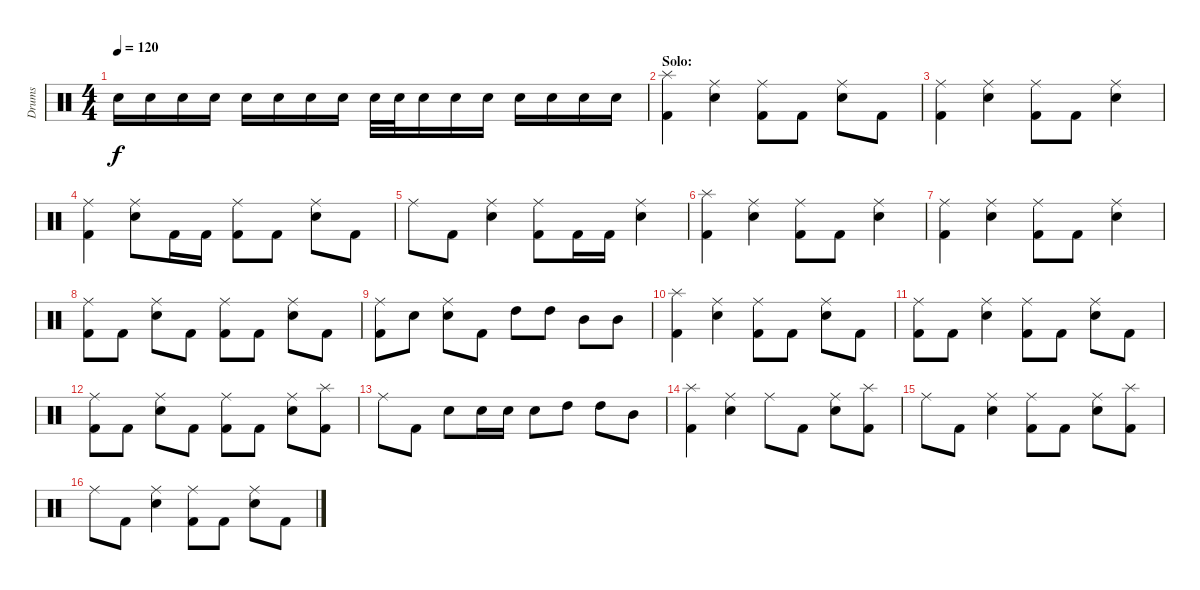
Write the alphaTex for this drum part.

\track ("Drums" "Drums") {instrument percussion}
\staff {score}
\articulation defaults
\ts (4 4)
\tempo 120
\clef neutral
\ks c "Electric Snare (hit)".16{dy f} "Electric Snare (hit)".16 "Electric Snare (hit)".16 "Electric Snare (hit)".16 "Electric Snare (hit)".16 "Electric Snare (hit)".16 "Electric Snare (hit)".16 "Electric Snare (hit)".16 "Electric Snare (hit)".32 "Electric Snare (hit)".32 "Electric Snare (hit)".16 "Electric Snare (hit)".16 "Electric Snare (hit)".16 "Electric Snare (hit)".16 "Electric Snare (hit)".16 "Electric Snare (hit)".16 "Electric Snare (hit)".16
|
\section ("" "Solo:")
("Splash (hit)" "Kick (hit) 2").4 ("Ride (middle)" "Electric Snare (hit)").4 ("Ride (middle)" "Kick (hit) 2").8 "Kick (hit) 2".8 ("Ride (middle)" "Electric Snare (hit)").8 "Kick (hit) 2".8 |
("Ride (middle)" "Kick (hit) 2").4 ("Ride (middle)" "Electric Snare (hit)").4 ("Ride (middle)" "Kick (hit) 2").8 "Kick (hit) 2".8 ("Ride (middle)" "Electric Snare (hit)").4 |
("Ride (middle)" "Kick (hit) 2").4 ("Ride (middle)" "Electric Snare (hit)").8 "Kick (hit) 2".16 "Kick (hit) 2".16 ("Ride (middle)" "Kick (hit) 2").8 "Kick (hit) 2".8 ("Ride (middle)" "Electric Snare (hit)").8 "Kick (hit) 2".8 |
"Ride (middle)".8 "Kick (hit) 2".8 ("Ride (middle)" "Electric Snare (hit)").4 ("Ride (middle)" "Kick (hit) 2").8 "Kick (hit) 2".16 "Kick (hit) 2".16 ("Ride (middle)" "Electric Snare (hit)").4 |
("Splash (hit)" "Kick (hit) 2").4 ("Ride (middle)" "Electric Snare (hit)").4 ("Ride (middle)" "Kick (hit) 2").8 "Kick (hit) 2".8 ("Ride (middle)" "Electric Snare (hit)").4 |
("Ride (middle)" "Kick (hit) 2").4 ("Ride (middle)" "Electric Snare (hit)").4 ("Ride (middle)" "Kick (hit) 2").8 "Kick (hit) 2".8 ("Ride (middle)" "Electric Snare (hit)").4 |
("Ride (middle)" "Kick (hit) 2").8 "Kick (hit) 2".8 ("Ride (middle)" "Electric Snare (hit)").8 "Kick (hit) 2".8 ("Ride (middle)" "Kick (hit) 2").8 "Kick (hit) 2".8 ("Ride (middle)" "Electric Snare (hit)").8 "Kick (hit) 2".8 |
("Ride (middle)" "Kick (hit) 2").8 "Electric Snare (hit)".8 ("Ride (middle)" "Electric Snare (hit)").8 "Kick (hit) 2".8 "High Tom (hit)".8 "High Tom (hit)".8 "Mid Tom (hit)".8 "Mid Tom (hit)".8 |
("Splash (hit)" "Kick (hit) 2").4 ("Ride (middle)" "Electric Snare (hit)").4 ("Ride (middle)" "Kick (hit) 2").8 "Kick (hit) 2".8 ("Ride (middle)" "Electric Snare (hit)").8 "Kick (hit) 2".8 |
("Ride (middle)" "Kick (hit) 2").8 "Kick (hit) 2".8 ("Ride (middle)" "Electric Snare (hit)").4 ("Ride (middle)" "Kick (hit) 2").8 "Kick (hit) 2".8 ("Ride (middle)" "Electric Snare (hit)").8 "Kick (hit) 2".8 |
("Ride (middle)" "Kick (hit) 2").8 "Kick (hit) 2".8 ("Ride (middle)" "Electric Snare (hit)").8 "Kick (hit) 2".8 ("Ride (middle)" "Kick (hit) 2").8 "Kick (hit) 2".8 ("Ride (middle)" "Electric Snare (hit)").8 ("Splash (hit)" "Kick (hit) 2").8 |
"Ride (middle)".8 "Kick (hit) 2".8 "Electric Snare (hit)".8 "Electric Snare (hit)".16 "Electric Snare (hit)".16 "Electric Snare (hit)".8 "High Tom (hit)".8 "High Tom (hit)".8 "Mid Tom (hit)".8 |
("Splash (hit)" "Kick (hit) 2").4 ("Ride (middle)" "Electric Snare (hit)").4 "Ride (middle)".8 "Kick (hit) 2".8 ("Ride (middle)" "Electric Snare (hit)").8 ("Splash (hit)" "Kick (hit) 2").8 |
"Ride (middle)".8 "Kick (hit) 2".8 ("Ride (middle)" "Electric Snare (hit)").4 ("Ride (middle)" "Kick (hit) 2").8 "Kick (hit) 2".8 ("Ride (middle)" "Electric Snare (hit)").8 ("Splash (hit)" "Kick (hit) 2").8 |
"Ride (middle)".8 "Kick (hit) 2".8 ("Ride (middle)" "Electric Snare (hit)").4 ("Ride (middle)" "Kick (hit) 2").8 "Kick (hit) 2".8 ("Ride (middle)" "Electric Snare (hit)").8 "Kick (hit) 2".8
